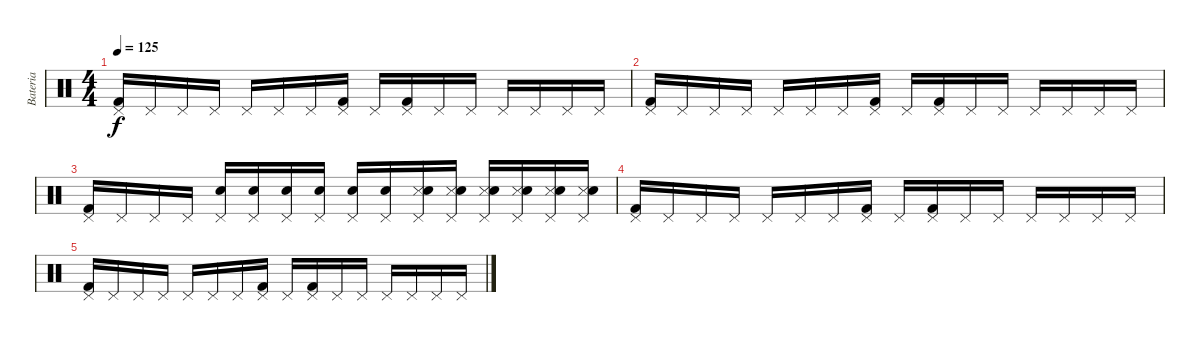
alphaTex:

\track ("Bateria" "Bateria") {instrument percussion}
\staff {score}
\articulation defaults
\ts (4 4)
\tempo 125
\clef neutral
\ks c
("Pedal Hi-Hat (hit)" "Kick (hit) 2").16{dy f} "Pedal Hi-Hat (hit)".16 "Pedal Hi-Hat (hit)".16 "Pedal Hi-Hat (hit)".16 "Pedal Hi-Hat (hit)".16 "Pedal Hi-Hat (hit)".16 "Pedal Hi-Hat (hit)".16 ("Pedal Hi-Hat (hit)" "Kick (hit) 2").16 "Pedal Hi-Hat (hit)".16 ("Pedal Hi-Hat (hit)" "Kick (hit) 2").16 "Pedal Hi-Hat (hit)".16 "Pedal Hi-Hat (hit)".16 "Pedal Hi-Hat (hit)".16 "Pedal Hi-Hat (hit)".16 "Pedal Hi-Hat (hit)".16 "Pedal Hi-Hat (hit)".16 |
("Pedal Hi-Hat (hit)" "Kick (hit) 2").16 "Pedal Hi-Hat (hit)".16 "Pedal Hi-Hat (hit)".16 "Pedal Hi-Hat (hit)".16 "Pedal Hi-Hat (hit)".16 "Pedal Hi-Hat (hit)".16 "Pedal Hi-Hat (hit)".16 ("Pedal Hi-Hat (hit)" "Kick (hit) 2").16 "Pedal Hi-Hat (hit)".16 ("Pedal Hi-Hat (hit)" "Kick (hit) 2").16 "Pedal Hi-Hat (hit)".16 "Pedal Hi-Hat (hit)".16 "Pedal Hi-Hat (hit)".16 "Pedal Hi-Hat (hit)".16 "Pedal Hi-Hat (hit)".16 "Pedal Hi-Hat (hit)".16 |
("Pedal Hi-Hat (hit)" "Kick (hit) 2").16 "Pedal Hi-Hat (hit)".16 "Pedal Hi-Hat (hit)".16 "Pedal Hi-Hat (hit)".16 ("Pedal Hi-Hat (hit)" "Snare (hit) 2").16 ("Pedal Hi-Hat (hit)" "Snare (hit) 2").16 ("Pedal Hi-Hat (hit)" "Snare (hit) 2").16 ("Pedal Hi-Hat (hit)" "Snare (hit) 2").16 ("Pedal Hi-Hat (hit)" "Snare (hit) 2").16 ("Pedal Hi-Hat (hit)" "Snare (hit) 2").16 ("Pedal Hi-Hat (hit)" "Snare (side stick) 3" "Snare (hit) 2").16 ("Pedal Hi-Hat (hit)" "Snare (side stick) 3" "Snare (hit) 2").16 ("Pedal Hi-Hat (hit)" "Snare (side stick) 3" "Snare (hit) 2").16 ("Pedal Hi-Hat (hit)" "Snare (side stick) 3" "Snare (hit) 2").16 ("Pedal Hi-Hat (hit)" "Snare (side stick) 3" "Snare (hit) 2").16 ("Pedal Hi-Hat (hit)" "Snare (side stick) 3" "Snare (hit) 2").16 |
("Pedal Hi-Hat (hit)" "Kick (hit) 2").16{volume 1} "Pedal Hi-Hat (hit)".16 "Pedal Hi-Hat (hit)".16 "Pedal Hi-Hat (hit)".16 "Pedal Hi-Hat (hit)".16 "Pedal Hi-Hat (hit)".16 "Pedal Hi-Hat (hit)".16 ("Pedal Hi-Hat (hit)" "Kick (hit) 2").16 "Pedal Hi-Hat (hit)".16 ("Pedal Hi-Hat (hit)" "Kick (hit) 2").16 "Pedal Hi-Hat (hit)".16 "Pedal Hi-Hat (hit)".16 "Pedal Hi-Hat (hit)".16 "Pedal Hi-Hat (hit)".16 "Pedal Hi-Hat (hit)".16 "Pedal Hi-Hat (hit)".16 |
("Pedal Hi-Hat (hit)" "Kick (hit) 2").16 "Pedal Hi-Hat (hit)".16 "Pedal Hi-Hat (hit)".16 "Pedal Hi-Hat (hit)".16 "Pedal Hi-Hat (hit)".16 "Pedal Hi-Hat (hit)".16 "Pedal Hi-Hat (hit)".16 ("Pedal Hi-Hat (hit)" "Kick (hit) 2").16 "Pedal Hi-Hat (hit)".16 ("Pedal Hi-Hat (hit)" "Kick (hit) 2").16 "Pedal Hi-Hat (hit)".16 "Pedal Hi-Hat (hit)".16 "Pedal Hi-Hat (hit)".16 "Pedal Hi-Hat (hit)".16 "Pedal Hi-Hat (hit)".16 "Pedal Hi-Hat (hit)".16
